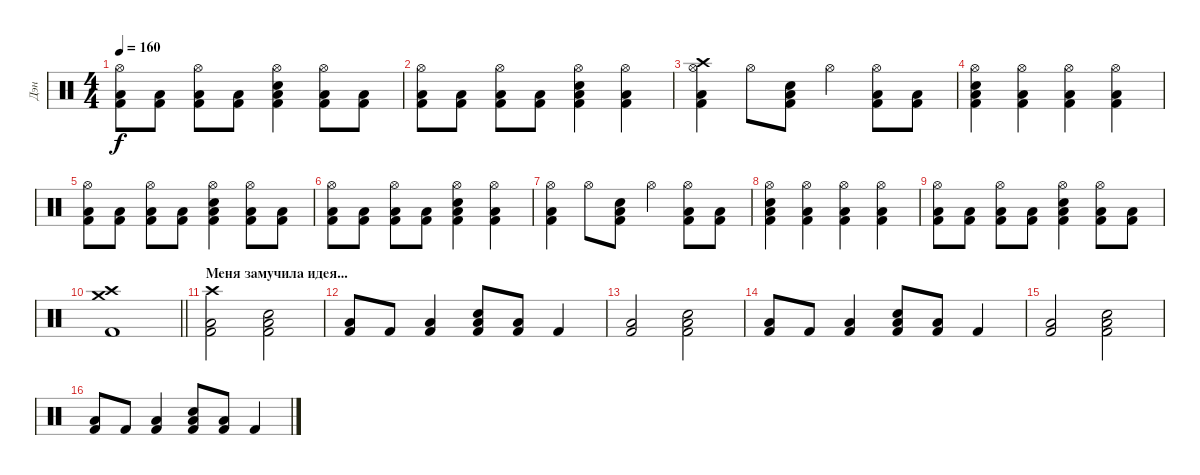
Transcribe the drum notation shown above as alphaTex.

\track ("Дэн" "Дэн") {instrument percussion}
\staff {score}
\articulation defaults
\ts (4 4)
\tempo 160
\clef neutral
\ks c
("Hi-Hat (open)" "Low Tom (hit)" "Kick (hit) 2").8{dy f} ("Low Tom (hit)" "Kick (hit) 2").8 ("Hi-Hat (open)" "Low Tom (hit)" "Kick (hit) 2").8 ("Low Tom (hit)" "Kick (hit) 2").8 ("Hi-Hat (open)" "Electric Snare (hit)" "Low Tom (hit)" "Kick (hit) 2").4 ("Hi-Hat (open)" "Low Tom (hit)" "Kick (hit) 2").8 ("Low Tom (hit)" "Kick (hit) 2").8 |
("Hi-Hat (open)" "Low Tom (hit)" "Kick (hit) 2").8 ("Low Tom (hit)" "Kick (hit) 2").8 ("Hi-Hat (open)" "Low Tom (hit)" "Kick (hit) 2").8 ("Low Tom (hit)" "Kick (hit) 2").8 ("Hi-Hat (open)" "Electric Snare (hit)" "Low Tom (hit)" "Kick (hit) 2").4 ("Hi-Hat (open)" "Low Tom (hit)" "Kick (hit) 2").4 |
("Crash high (hit)" "Hi-Hat (open)" "Low Tom (hit)" "Kick (hit) 2").4 "Hi-Hat (open)".8 ("Electric Snare (hit)" "Low Tom (hit)" "Kick (hit) 2").8 "Hi-Hat (open)".4 ("Hi-Hat (open)" "Low Tom (hit)" "Kick (hit) 2").8 ("Low Tom (hit)" "Kick (hit) 2").8 |
("Hi-Hat (open)" "Electric Snare (hit)" "Low Tom (hit)" "Kick (hit) 2").4 ("Hi-Hat (open)" "Low Tom (hit)" "Kick (hit) 2").4 ("Hi-Hat (open)" "Low Tom (hit)" "Kick (hit) 2").4 ("Hi-Hat (open)" "Low Tom (hit)" "Kick (hit) 2").4 |
("Hi-Hat (open)" "Low Tom (hit)" "Kick (hit) 2").8 ("Low Tom (hit)" "Kick (hit) 2").8 ("Hi-Hat (open)" "Low Tom (hit)" "Kick (hit) 2").8 ("Low Tom (hit)" "Kick (hit) 2").8 ("Hi-Hat (open)" "Electric Snare (hit)" "Low Tom (hit)" "Kick (hit) 2").4 ("Hi-Hat (open)" "Low Tom (hit)" "Kick (hit) 2").8 ("Low Tom (hit)" "Kick (hit) 2").8 |
("Hi-Hat (open)" "Low Tom (hit)" "Kick (hit) 2").8 ("Low Tom (hit)" "Kick (hit) 2").8 ("Hi-Hat (open)" "Low Tom (hit)" "Kick (hit) 2").8 ("Low Tom (hit)" "Kick (hit) 2").8 ("Hi-Hat (open)" "Electric Snare (hit)" "Low Tom (hit)" "Kick (hit) 2").4 ("Hi-Hat (open)" "Low Tom (hit)" "Kick (hit) 2").4 |
("Hi-Hat (open)" "Low Tom (hit)" "Kick (hit) 2").4 "Hi-Hat (open)".8 ("Electric Snare (hit)" "Low Tom (hit)" "Kick (hit) 2").8 "Hi-Hat (open)".4 ("Hi-Hat (open)" "Low Tom (hit)" "Kick (hit) 2").8 ("Low Tom (hit)" "Kick (hit) 2").8 |
("Hi-Hat (open)" "Electric Snare (hit)" "Low Tom (hit)" "Kick (hit) 2").4 ("Hi-Hat (open)" "Low Tom (hit)" "Kick (hit) 2").4 ("Hi-Hat (open)" "Low Tom (hit)" "Kick (hit) 2").4 ("Hi-Hat (open)" "Low Tom (hit)" "Kick (hit) 2").4 |
("Hi-Hat (open)" "Low Tom (hit)" "Kick (hit) 2").8 ("Low Tom (hit)" "Kick (hit) 2").8 ("Hi-Hat (open)" "Low Tom (hit)" "Kick (hit) 2").8 ("Low Tom (hit)" "Kick (hit) 2").8 ("Hi-Hat (open)" "Electric Snare (hit)" "Low Tom (hit)" "Kick (hit) 2").4 ("Hi-Hat (open)" "Low Tom (hit)" "Kick (hit) 2").8 ("Low Tom (hit)" "Kick (hit) 2").8 |
\barLineRight lightlight
("Crash high (hit)" "Crash medium (hit)" "Kick (hit) 2").1 |
\section ("" "Меня замучила идея...")
("Crash high (hit)" "Low Tom (hit)" "Kick (hit) 2").2{volume 13} ("Electric Snare (hit)" "Low Tom (hit)" "Kick (hit) 2").2 |
("Low Tom (hit)" "Kick (hit) 2").8 "Kick (hit) 2".8 ("Low Tom (hit)" "Kick (hit) 2").4 ("Electric Snare (hit)" "Low Tom (hit)" "Kick (hit) 2").8 ("Low Tom (hit)" "Kick (hit) 2").8 "Kick (hit) 2".4 |
("Low Tom (hit)" "Kick (hit) 2").2 ("Electric Snare (hit)" "Low Tom (hit)" "Kick (hit) 2").2 |
("Low Tom (hit)" "Kick (hit) 2").8 "Kick (hit) 2".8 ("Low Tom (hit)" "Kick (hit) 2").4 ("Electric Snare (hit)" "Low Tom (hit)" "Kick (hit) 2").8 ("Low Tom (hit)" "Kick (hit) 2").8 "Kick (hit) 2".4 |
("Low Tom (hit)" "Kick (hit) 2").2 ("Electric Snare (hit)" "Low Tom (hit)" "Kick (hit) 2").2 |
("Low Tom (hit)" "Kick (hit) 2").8 "Kick (hit) 2".8 ("Low Tom (hit)" "Kick (hit) 2").4 ("Electric Snare (hit)" "Low Tom (hit)" "Kick (hit) 2").8 ("Low Tom (hit)" "Kick (hit) 2").8 "Kick (hit) 2".4
